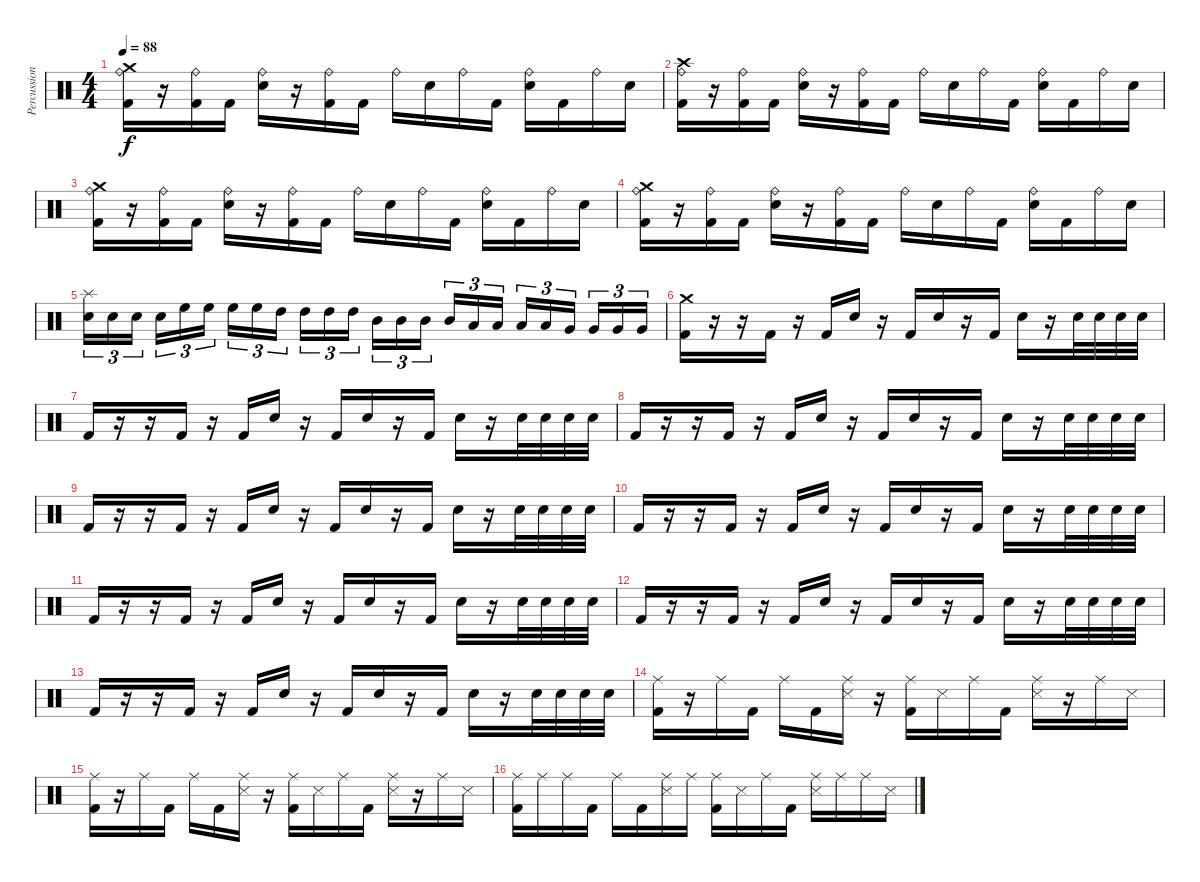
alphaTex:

\track ("Percussion" "Percussion") {instrument percussion}
\staff {score}
\articulation defaults
\ts (4 4)
\tempo 88
\clef neutral
\ks c
("Crash medium (hit)" "Ride (bell)" "Kick (hit) 2").16{dy f} r.16 ("Ride (bell)" "Kick (hit) 2").16 "Kick (hit) 2".16 ("Ride (bell)" "Electric Snare (hit)").16 r.16 ("Ride (bell)" "Kick (hit) 2").16 "Kick (hit) 2".16 "Ride (bell)".16 "Electric Snare (hit)".16 "Ride (bell)".16 "Kick (hit) 2".16 ("Ride (bell)" "Electric Snare (hit)").16 "Kick (hit) 2".16 "Ride (bell)".16 "Electric Snare (hit)".16 |
("Crash high (hit)" "Ride (bell)" "Kick (hit) 2").16 r.16 ("Ride (bell)" "Kick (hit) 2").16 "Kick (hit) 2".16 ("Ride (bell)" "Electric Snare (hit)").16 r.16 ("Ride (bell)" "Kick (hit) 2").16 "Kick (hit) 2".16 "Ride (bell)".16 "Electric Snare (hit)".16 "Ride (bell)".16 "Kick (hit) 2".16 ("Ride (bell)" "Electric Snare (hit)").16 "Kick (hit) 2".16 "Ride (bell)".16 "Electric Snare (hit)".16 |
("Crash medium (hit)" "Ride (bell)" "Kick (hit) 2").16 r.16 ("Ride (bell)" "Kick (hit) 2").16 "Kick (hit) 2".16 ("Ride (bell)" "Electric Snare (hit)").16 r.16 ("Ride (bell)" "Kick (hit) 2").16 "Kick (hit) 2".16 "Ride (bell)".16 "Electric Snare (hit)".16 "Ride (bell)".16 "Kick (hit) 2".16 ("Ride (bell)" "Electric Snare (hit)").16 "Kick (hit) 2".16 "Ride (bell)".16 "Electric Snare (hit)".16 |
("Crash medium (hit)" "Ride (bell)" "Kick (hit) 2").16 r.16 ("Ride (bell)" "Kick (hit) 2").16 "Kick (hit) 2".16 ("Ride (bell)" "Electric Snare (hit)").16 r.16 ("Ride (bell)" "Kick (hit) 2").16 "Kick (hit) 2".16 "Ride (bell)".16 "Electric Snare (hit)".16 "Ride (bell)".16 "Kick (hit) 2".16 ("Ride (bell)" "Electric Snare (hit)").16 "Kick (hit) 2".16 "Ride (bell)".16 "Electric Snare (hit)".16 |
("Splash (hit)" "Electric Snare (hit)").16{tu (3 2)} "Electric Snare (hit)".16{tu (3 2)} "Electric Snare (hit)".16{tu (3 2)} "Electric Snare (hit)".16{tu (3 2)} "High Floor Tom (hit)".16{tu (3 2)} "High Floor Tom (hit)".16{tu (3 2)} "High Floor Tom (hit)".16{tu (3 2)} "High Floor Tom (hit)".16{tu (3 2)} "High Tom (hit)".16{tu (3 2)} "High Tom (hit)".16{tu (3 2)} "High Tom (hit)".16{tu (3 2)} "High Tom (hit)".16{tu (3 2)} "Mid Tom (hit)".16{tu (3 2)} "Mid Tom (hit)".16{tu (3 2)} "Mid Tom (hit)".16{tu (3 2)} "Mid Tom (hit)".16{tu (3 2)} "Low Tom (hit)".16{tu (3 2)} "Low Tom (hit)".16{tu (3 2)} "Low Tom (hit)".16{tu (3 2)} "Low Tom (hit)".16{tu (3 2)} "Very Low Tom (hit)".16{tu (3 2)} "Very Low Tom (hit)".16{tu (3 2)} "Very Low Tom (hit)".16{tu (3 2)} "Very Low Tom (hit)".16{tu (3 2)} |
("Crash medium (hit)" "Kick (hit) 2").16 r.16 r.16 "Kick (hit) 2".16 r.16 "Kick (hit) 2".16 "Electric Snare (hit)".16 r.16 "Kick (hit) 2".16 "Electric Snare (hit)".16 r.16 "Kick (hit) 2".16 "Electric Snare (hit)".16 r.16 "Electric Snare (hit)".32 "Electric Snare (hit)".32 "Electric Snare (hit)".32 "Electric Snare (hit)".32 |
"Kick (hit) 2".16 r.16 r.16 "Kick (hit) 2".16 r.16 "Kick (hit) 2".16 "Electric Snare (hit)".16 r.16 "Kick (hit) 2".16 "Electric Snare (hit)".16 r.16 "Kick (hit) 2".16 "Electric Snare (hit)".16 r.16 "Electric Snare (hit)".32 "Electric Snare (hit)".32 "Electric Snare (hit)".32 "Electric Snare (hit)".32 |
"Kick (hit) 2".16 r.16 r.16 "Kick (hit) 2".16 r.16 "Kick (hit) 2".16 "Electric Snare (hit)".16 r.16 "Kick (hit) 2".16 "Electric Snare (hit)".16 r.16 "Kick (hit) 2".16 "Electric Snare (hit)".16 r.16 "Electric Snare (hit)".32 "Electric Snare (hit)".32 "Electric Snare (hit)".32 "Electric Snare (hit)".32 |
"Kick (hit) 2".16 r.16 r.16 "Kick (hit) 2".16 r.16 "Kick (hit) 2".16 "Electric Snare (hit)".16 r.16 "Kick (hit) 2".16 "Electric Snare (hit)".16 r.16 "Kick (hit) 2".16 "Electric Snare (hit)".16 r.16 "Electric Snare (hit)".32 "Electric Snare (hit)".32 "Electric Snare (hit)".32 "Electric Snare (hit)".32 |
"Kick (hit) 2".16 r.16 r.16 "Kick (hit) 2".16 r.16 "Kick (hit) 2".16 "Electric Snare (hit)".16 r.16 "Kick (hit) 2".16 "Electric Snare (hit)".16 r.16 "Kick (hit) 2".16 "Electric Snare (hit)".16 r.16 "Electric Snare (hit)".32 "Electric Snare (hit)".32 "Electric Snare (hit)".32 "Electric Snare (hit)".32 |
"Kick (hit) 2".16 r.16 r.16 "Kick (hit) 2".16 r.16 "Kick (hit) 2".16 "Electric Snare (hit)".16 r.16 "Kick (hit) 2".16 "Electric Snare (hit)".16 r.16 "Kick (hit) 2".16 "Electric Snare (hit)".16 r.16 "Electric Snare (hit)".32 "Electric Snare (hit)".32 "Electric Snare (hit)".32 "Electric Snare (hit)".32 |
"Kick (hit) 2".16 r.16 r.16 "Kick (hit) 2".16 r.16 "Kick (hit) 2".16 "Electric Snare (hit)".16 r.16 "Kick (hit) 2".16 "Electric Snare (hit)".16 r.16 "Kick (hit) 2".16 "Electric Snare (hit)".16 r.16 "Electric Snare (hit)".32 "Electric Snare (hit)".32 "Electric Snare (hit)".32 "Electric Snare (hit)".32 |
"Kick (hit) 2".16 r.16 r.16 "Kick (hit) 2".16 r.16 "Kick (hit) 2".16 "Electric Snare (hit)".16 r.16 "Kick (hit) 2".16 "Electric Snare (hit)".16 r.16 "Kick (hit) 2".16 "Electric Snare (hit)".16 r.16 "Electric Snare (hit)".32 "Electric Snare (hit)".32 "Electric Snare (hit)".32 "Electric Snare (hit)".32 |
("Ride (middle)" "Kick (hit) 2").16 r.16 "Ride (middle)".16 "Kick (hit) 2".16 "Ride (middle)".16 "Kick (hit) 2".16 ("Ride (middle)" "Snare (side stick) 3").16 r.16 ("Ride (middle)" "Kick (hit) 2").16 "Snare (side stick) 3".16 "Ride (middle)".16 "Kick (hit) 2".16 ("Ride (middle)" "Snare (side stick) 3").16 r.16 "Ride (middle)".16 "Snare (side stick) 3".16 |
("Ride (middle)" "Kick (hit) 2").16 r.16 "Ride (middle)".16 "Kick (hit) 2".16 "Ride (middle)".16 "Kick (hit) 2".16 ("Ride (middle)" "Snare (side stick) 3").16 r.16 ("Ride (middle)" "Kick (hit) 2").16 "Snare (side stick) 3".16 "Ride (middle)".16 "Kick (hit) 2".16 ("Ride (middle)" "Snare (side stick) 3").16 r.16 "Ride (middle)".16 "Snare (side stick) 3".16 |
("Ride (middle)" "Kick (hit) 2").16 "Ride (middle)".16 "Ride (middle)".16 "Kick (hit) 2".16 "Ride (middle)".16 "Kick (hit) 2".16 ("Ride (middle)" "Snare (side stick) 3").16 "Ride (middle)".16 ("Ride (middle)" "Kick (hit) 2").16 "Snare (side stick) 3".16 "Ride (middle)".16 "Kick (hit) 2".16 ("Ride (middle)" "Snare (side stick) 3").16 "Ride (middle)".16 "Ride (middle)".16 "Snare (side stick) 3".16
